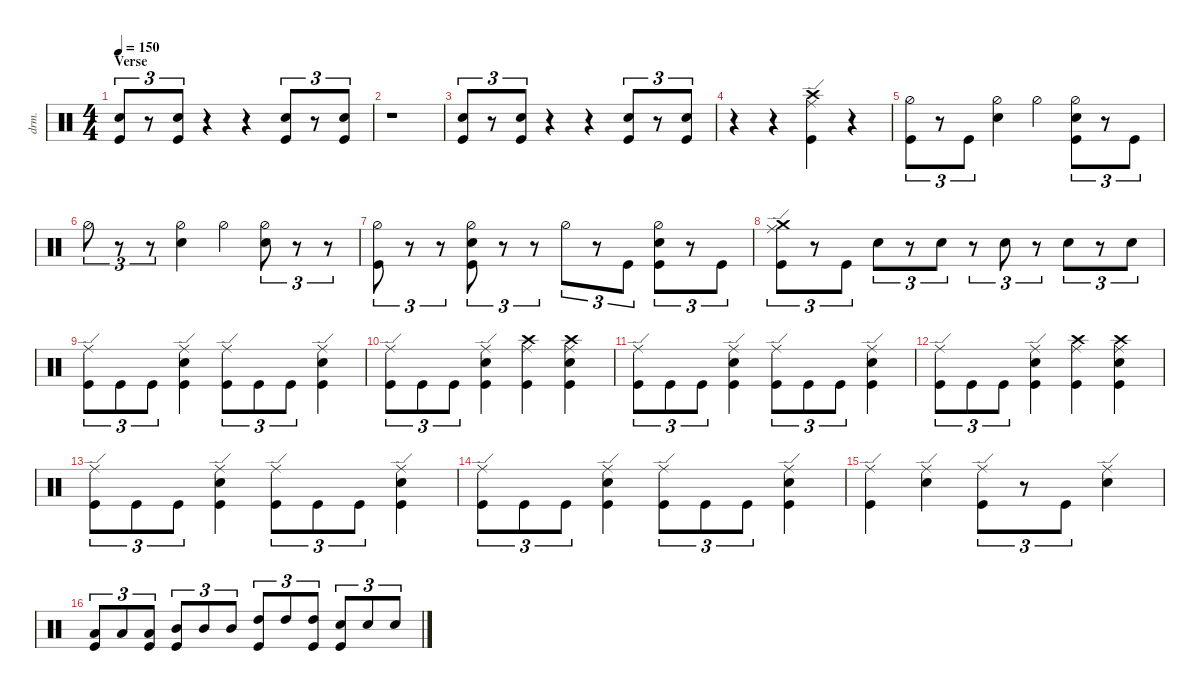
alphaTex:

\defaultSystemsLayout 4
\hideDynamics
\bracketExtendMode nobrackets
\otherSystemsTrackNameOrientation horizontal
\track ("Drumkit" "drm.") {solo instrument percussion}
\staff {score}
\articulation defaults
\ts (4 4)
\section ("" "Verse")
\scale
1.06666
\tempo 150
\accidentals auto
\clef neutral
\ottava regular
\simile none
\ks aminor
("Kick (hit)" "Snare (hit) 2").8{tu (3 2) dy mf beam Up} r.8{tu (3 2) beam Up} ("Kick (hit)" "Snare (hit) 2").8{tu (3 2) beam Up} r.4{beam Up} r.4{beam Up} ("Kick (hit)" "Snare (hit) 2").8{tu (3 2) beam Up} r.8{tu (3 2) beam Up} ("Kick (hit)" "Snare (hit) 2").8{tu (3 2) beam Up} |
\scale
0.977779 r.1{beam Down} |
\scale
0.977779 ("Kick (hit)" "Snare (hit) 2").8{tu (3 2) beam Up} r.8{tu (3 2) beam Up} ("Kick (hit)" "Snare (hit) 2").8{tu (3 2) beam Up} r.4{beam Up} r.4{beam Up} ("Kick (hit)" "Snare (hit) 2").8{tu (3 2) beam Up} r.8{tu (3 2) beam Up} ("Kick (hit)" "Snare (hit) 2").8{tu (3 2) beam Up} |
\scale
0.977779 r.4{beam Down} r.4{beam Down} ("Kick (hit)" "Ride (edge)" "Crash high (hit)").4{beam Down} r.4{beam Down} |
\scale
1.06666 ("Kick (hit)" "Hi-Hat (half)").8{tu (3 2) beam Down} r.8{tu (3 2) beam Down} "Kick (hit)".8{tu (3 2) beam Down} ("Hi-Hat (half)" "Snare (hit) 2").4{beam Down} "Hi-Hat (half)".4{beam Down} ("Kick (hit)" "Hi-Hat (half)" "Snare (hit) 2").8{tu (3 2) beam Down} r.8{tu (3 2) beam Down} "Kick (hit)".8{tu (3 2) beam Down} |
\scale
0.977779 "Hi-Hat (half)".8{tu (3 2) beam Down} r.8{tu (3 2) beam Down} r.8{tu (3 2) beam Down} ("Hi-Hat (half)" "Snare (hit) 2").4{beam Down} "Hi-Hat (half)".4{beam Down} ("Hi-Hat (half)" "Snare (hit) 2").8{tu (3 2) beam Down} r.8{tu (3 2) beam Down} r.8{tu (3 2) beam Down} |
\scale
0.977779 ("Kick (hit)" "Hi-Hat (half)").8{tu (3 2) beam Down} r.8{tu (3 2) beam Down} r.8{tu (3 2) beam Down} ("Kick (hit)" "Hi-Hat (half)" "Snare (hit) 2").8{tu (3 2) beam Down} r.8{tu (3 2) beam Down} r.8{tu (3 2) beam Down} "Hi-Hat (half)".8{tu (3 2) beam Down} r.8{tu (3 2) beam Down} "Kick (hit)".8{tu (3 2) beam Down} ("Kick (hit)" "Hi-Hat (half)" "Snare (hit) 2").8{tu (3 2) beam Down} r.8{tu (3 2) beam Down} "Kick (hit)".8{tu (3 2) beam Down} |
\scale
0.977779 ("Kick (hit)" "Crash medium (hit)" "Ride (edge)").8{tu (3 2) beam Down} r.8{tu (3 2) beam Down} "Kick (hit)".8{tu (3 2) beam Down} "Snare (hit) 2".8{tu (3 2) beam Down} r.8{tu (3 2) beam Down} "Snare (hit) 2".8{tu (3 2) beam Down} r.8{tu (3 2) beam Down} "Snare (hit) 2".8{tu (3 2) beam Down} r.8{tu (3 2) beam Down} "Snare (hit) 2".8{tu (3 2) beam Down} r.8{tu (3 2) beam Down} "Snare (hit) 2".8{tu (3 2) beam Down} |
\scale
1.06666 ("Kick (hit)" "Ride (edge)").8{tu (3 2) beam Down} "Kick (hit)".8{tu (3 2) beam Down} "Kick (hit)".8{tu (3 2) beam Down} ("Kick (hit)" "Ride (edge)" "Snare (hit) 2").4{beam Down} ("Kick (hit)" "Ride (edge)").8{tu (3 2) beam Down} "Kick (hit)".8{tu (3 2) beam Down} "Kick (hit)".8{tu (3 2) beam Down} ("Kick (hit)" "Ride (edge)" "Snare (hit) 2").4{beam Down} |
\scale
0.977779 ("Kick (hit)" "Ride (edge)").8{tu (3 2) beam Down} "Kick (hit)".8{tu (3 2) beam Down} "Kick (hit)".8{tu (3 2) beam Down} ("Kick (hit)" "Ride (edge)" "Snare (hit) 2").4{beam Down} ("Kick (hit)" "Ride (middle)" "Crash high (hit)").4{beam Down} ("Kick (hit)" "Crash high (hit)" "Ride (middle)" "Snare (hit) 2").4{beam Down} |
\scale
0.977779 ("Kick (hit)" "Ride (edge)").8{tu (3 2) beam Down} "Kick (hit)".8{tu (3 2) beam Down} "Kick (hit)".8{tu (3 2) beam Down} ("Kick (hit)" "Ride (edge)" "Snare (hit) 2").4{beam Down} ("Kick (hit)" "Ride (edge)").8{tu (3 2) beam Down} "Kick (hit)".8{tu (3 2) beam Down} "Kick (hit)".8{tu (3 2) beam Down} ("Kick (hit)" "Ride (edge)" "Snare (hit) 2").4{beam Down} |
\scale
0.977779 ("Kick (hit)" "Ride (edge)").8{tu (3 2) beam Down} "Kick (hit)".8{tu (3 2) beam Down} "Kick (hit)".8{tu (3 2) beam Down} ("Kick (hit)" "Ride (edge)" "Snare (hit) 2").4{beam Down} ("Kick (hit)" "Ride (middle)" "Crash high (hit)").4{beam Down} ("Kick (hit)" "Crash high (hit)" "Ride (middle)" "Snare (hit) 2").4{beam Down} |
\scale
1.06224 ("Kick (hit)" "Ride (edge)").8{tu (3 2) beam Down} "Kick (hit)".8{tu (3 2) beam Down} "Kick (hit)".8{tu (3 2) beam Down} ("Kick (hit)" "Ride (edge)" "Snare (hit) 2").4{beam Down} ("Kick (hit)" "Ride (edge)").8{tu (3 2) beam Down} "Kick (hit)".8{tu (3 2) beam Down} "Kick (hit)".8{tu (3 2) beam Down} ("Kick (hit)" "Ride (edge)" "Snare (hit) 2").4{beam Down} |
\scale
0.973358 ("Kick (hit)" "Ride (edge)").8{tu (3 2) beam Down} "Kick (hit)".8{tu (3 2) beam Down} "Kick (hit)".8{tu (3 2) beam Down} ("Kick (hit)" "Ride (edge)" "Snare (hit) 2").4{beam Down} ("Kick (hit)" "Ride (edge)").8{tu (3 2) beam Down} "Kick (hit)".8{tu (3 2) beam Down} "Kick (hit)".8{tu (3 2) beam Down} ("Kick (hit)" "Ride (edge)" "Snare (hit) 2").4{beam Down} |
\scale
0.973358 ("Kick (hit)" "Ride (edge)").4{beam Down} ("Snare (hit) 2" "Ride (edge)").4{beam Down} ("Kick (hit)" "Ride (edge)").8{tu (3 2) beam Down} r.8{tu (3 2) beam Down} "Kick (hit)".8{tu (3 2) beam Down} ("Snare (hit) 2" "Ride (edge)").4{beam Down} |
\scale
0.991042 ("Low Tom (hit)" "Kick (hit)").8{tu (3 2) beam Up} "Low Tom (hit)".8{tu (3 2) beam Up} ("Low Tom (hit)" "Kick (hit)").8{tu (3 2) beam Up} ("Mid Tom (hit)" "Kick (hit)").8{tu (3 2) beam Up} "Mid Tom (hit)".8{tu (3 2) beam Up} "Mid Tom (hit)".8{tu (3 2) beam Up} ("Kick (hit)" "High Tom (hit)").8{tu (3 2) beam Up} "High Tom (hit)".8{tu (3 2) beam Up} ("High Tom (hit)" "Kick (hit)").8{tu (3 2) beam Up} ("Snare (hit) 2" "Kick (hit)").8{tu (3 2) beam Up} "Snare (hit) 2".8{tu (3 2) beam Up} "Snare (hit) 2".8{tu (3 2) beam Up}
